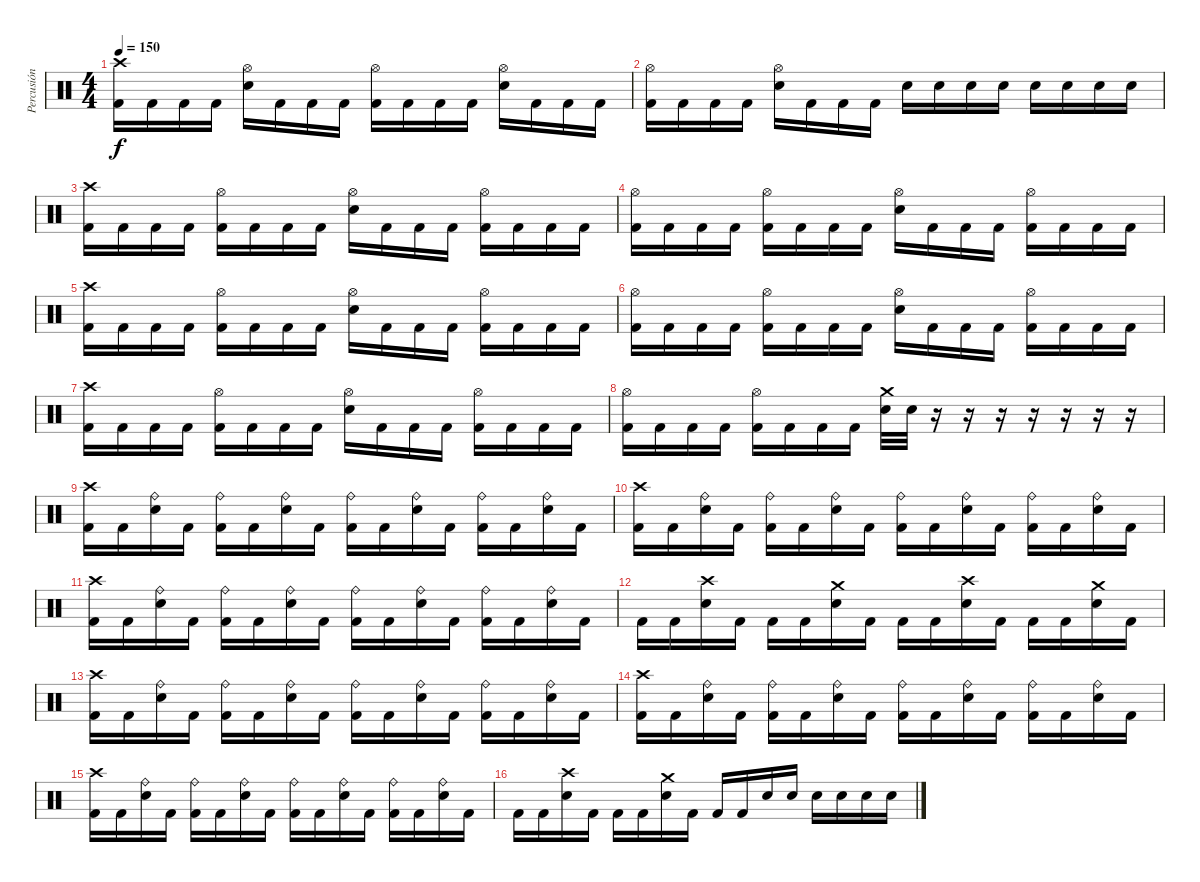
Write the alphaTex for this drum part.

\track ("Percusión" "Percusión") {instrument percussion}
\staff {score}
\articulation defaults
\ts (4 4)
\tempo 150
\clef neutral
\ks c
("Crash high (hit)" "Kick (hit) 2").16{dy f} "Kick (hit) 2".16 "Kick (hit) 2".16 "Kick (hit) 2".16 ("Hi-Hat (open)" "Electric Snare (hit)").16 "Kick (hit) 2".16 "Kick (hit) 2".16 "Kick (hit) 2".16 ("Hi-Hat (open)" "Kick (hit) 2").16 "Kick (hit) 2".16 "Kick (hit) 2".16 "Kick (hit) 2".16 ("Hi-Hat (open)" "Electric Snare (hit)").16 "Kick (hit) 2".16 "Kick (hit) 2".16 "Kick (hit) 2".16 |
("Hi-Hat (open)" "Kick (hit) 2").16 "Kick (hit) 2".16 "Kick (hit) 2".16 "Kick (hit) 2".16 ("Hi-Hat (open)" "Electric Snare (hit)").16 "Kick (hit) 2".16 "Kick (hit) 2".16 "Kick (hit) 2".16 "Electric Snare (hit)".16 "Electric Snare (hit)".16 "Electric Snare (hit)".16 "Electric Snare (hit)".16 "Electric Snare (hit)".16 "Electric Snare (hit)".16 "Electric Snare (hit)".16 "Electric Snare (hit)".16 |
("Crash high (hit)" "Kick (hit) 2").16 "Kick (hit) 2".16 "Kick (hit) 2".16 "Kick (hit) 2".16 ("Hi-Hat (open)" "Kick (hit) 2").16 "Kick (hit) 2".16 "Kick (hit) 2".16 "Kick (hit) 2".16 ("Hi-Hat (open)" "Electric Snare (hit)").16 "Kick (hit) 2".16 "Kick (hit) 2".16 "Kick (hit) 2".16 ("Hi-Hat (open)" "Kick (hit) 2").16 "Kick (hit) 2".16 "Kick (hit) 2".16 "Kick (hit) 2".16 |
("Hi-Hat (open)" "Kick (hit) 2").16 "Kick (hit) 2".16 "Kick (hit) 2".16 "Kick (hit) 2".16 ("Hi-Hat (open)" "Kick (hit) 2").16 "Kick (hit) 2".16 "Kick (hit) 2".16 "Kick (hit) 2".16 ("Hi-Hat (open)" "Electric Snare (hit)").16 "Kick (hit) 2".16 "Kick (hit) 2".16 "Kick (hit) 2".16 ("Hi-Hat (open)" "Kick (hit) 2").16 "Kick (hit) 2".16 "Kick (hit) 2".16 "Kick (hit) 2".16 |
("Crash high (hit)" "Kick (hit) 2").16 "Kick (hit) 2".16 "Kick (hit) 2".16 "Kick (hit) 2".16 ("Hi-Hat (open)" "Kick (hit) 2").16 "Kick (hit) 2".16 "Kick (hit) 2".16 "Kick (hit) 2".16 ("Hi-Hat (open)" "Electric Snare (hit)").16 "Kick (hit) 2".16 "Kick (hit) 2".16 "Kick (hit) 2".16 ("Hi-Hat (open)" "Kick (hit) 2").16 "Kick (hit) 2".16 "Kick (hit) 2".16 "Kick (hit) 2".16 |
("Hi-Hat (open)" "Kick (hit) 2").16 "Kick (hit) 2".16 "Kick (hit) 2".16 "Kick (hit) 2".16 ("Hi-Hat (open)" "Kick (hit) 2").16 "Kick (hit) 2".16 "Kick (hit) 2".16 "Kick (hit) 2".16 ("Hi-Hat (open)" "Electric Snare (hit)").16 "Kick (hit) 2".16 "Kick (hit) 2".16 "Kick (hit) 2".16 ("Hi-Hat (open)" "Kick (hit) 2").16 "Kick (hit) 2".16 "Kick (hit) 2".16 "Kick (hit) 2".16 |
("Crash high (hit)" "Kick (hit) 2").16 "Kick (hit) 2".16 "Kick (hit) 2".16 "Kick (hit) 2".16 ("Hi-Hat (open)" "Kick (hit) 2").16 "Kick (hit) 2".16 "Kick (hit) 2".16 "Kick (hit) 2".16 ("Hi-Hat (open)" "Electric Snare (hit)").16 "Kick (hit) 2".16 "Kick (hit) 2".16 "Kick (hit) 2".16 ("Hi-Hat (open)" "Kick (hit) 2").16 "Kick (hit) 2".16 "Kick (hit) 2".16 "Kick (hit) 2".16 |
("Hi-Hat (open)" "Kick (hit) 2").16 "Kick (hit) 2".16 "Kick (hit) 2".16 "Kick (hit) 2".16 ("Hi-Hat (open)" "Kick (hit) 2").16 "Kick (hit) 2".16 "Kick (hit) 2".16 "Kick (hit) 2".16 ("Crash medium (hit)" "Electric Snare (hit)").32 "Electric Snare (hit)".32 r.16 r.16 r.16 r.16 r.16 r.16 r.16 |
("Crash high (hit)" "Kick (hit) 2").16 "Kick (hit) 2".16 ("Ride (bell)" "Electric Snare (hit)").16 "Kick (hit) 2".16 ("Ride (bell)" "Kick (hit) 2").16 "Kick (hit) 2".16 ("Ride (bell)" "Electric Snare (hit)").16 "Kick (hit) 2".16 ("Ride (bell)" "Kick (hit) 2").16 "Kick (hit) 2".16 ("Ride (bell)" "Electric Snare (hit)").16 "Kick (hit) 2".16 ("Ride (bell)" "Kick (hit) 2").16 "Kick (hit) 2".16 ("Ride (bell)" "Electric Snare (hit)").16 "Kick (hit) 2".16 |
("Crash high (hit)" "Kick (hit) 2").16 "Kick (hit) 2".16 ("Ride (bell)" "Electric Snare (hit)").16 "Kick (hit) 2".16 ("Ride (bell)" "Kick (hit) 2").16 "Kick (hit) 2".16 ("Ride (bell)" "Electric Snare (hit)").16 "Kick (hit) 2".16 ("Ride (bell)" "Kick (hit) 2").16 "Kick (hit) 2".16 ("Ride (bell)" "Electric Snare (hit)").16 "Kick (hit) 2".16 ("Ride (bell)" "Kick (hit) 2").16 "Kick (hit) 2".16 ("Ride (bell)" "Electric Snare (hit)").16 "Kick (hit) 2".16 |
("Crash high (hit)" "Kick (hit) 2").16 "Kick (hit) 2".16 ("Ride (bell)" "Electric Snare (hit)").16 "Kick (hit) 2".16 ("Ride (bell)" "Kick (hit) 2").16 "Kick (hit) 2".16 ("Ride (bell)" "Electric Snare (hit)").16 "Kick (hit) 2".16 ("Ride (bell)" "Kick (hit) 2").16 "Kick (hit) 2".16 ("Ride (bell)" "Electric Snare (hit)").16 "Kick (hit) 2".16 ("Ride (bell)" "Kick (hit) 2").16 "Kick (hit) 2".16 ("Ride (bell)" "Electric Snare (hit)").16 "Kick (hit) 2".16 |
"Kick (hit) 2".16 "Kick (hit) 2".16 ("Crash high (hit)" "Electric Snare (hit)").16 "Kick (hit) 2".16 "Kick (hit) 2".16 "Kick (hit) 2".16 ("Crash medium (hit)" "Electric Snare (hit)").16 "Kick (hit) 2".16 "Kick (hit) 2".16 "Kick (hit) 2".16 ("Crash high (hit)" "Electric Snare (hit)").16 "Kick (hit) 2".16 "Kick (hit) 2".16 "Kick (hit) 2".16 ("Crash medium (hit)" "Electric Snare (hit)").16 "Kick (hit) 2".16 |
("Crash high (hit)" "Kick (hit) 2").16 "Kick (hit) 2".16 ("Ride (bell)" "Electric Snare (hit)").16 "Kick (hit) 2".16 ("Ride (bell)" "Kick (hit) 2").16 "Kick (hit) 2".16 ("Ride (bell)" "Electric Snare (hit)").16 "Kick (hit) 2".16 ("Ride (bell)" "Kick (hit) 2").16 "Kick (hit) 2".16 ("Ride (bell)" "Electric Snare (hit)").16 "Kick (hit) 2".16 ("Ride (bell)" "Kick (hit) 2").16 "Kick (hit) 2".16 ("Ride (bell)" "Electric Snare (hit)").16 "Kick (hit) 2".16 |
("Crash high (hit)" "Kick (hit) 2").16 "Kick (hit) 2".16 ("Ride (bell)" "Electric Snare (hit)").16 "Kick (hit) 2".16 ("Ride (bell)" "Kick (hit) 2").16 "Kick (hit) 2".16 ("Ride (bell)" "Electric Snare (hit)").16 "Kick (hit) 2".16 ("Ride (bell)" "Kick (hit) 2").16 "Kick (hit) 2".16 ("Ride (bell)" "Electric Snare (hit)").16 "Kick (hit) 2".16 ("Ride (bell)" "Kick (hit) 2").16 "Kick (hit) 2".16 ("Ride (bell)" "Electric Snare (hit)").16 "Kick (hit) 2".16 |
("Crash high (hit)" "Kick (hit) 2").16 "Kick (hit) 2".16 ("Ride (bell)" "Electric Snare (hit)").16 "Kick (hit) 2".16 ("Ride (bell)" "Kick (hit) 2").16 "Kick (hit) 2".16 ("Ride (bell)" "Electric Snare (hit)").16 "Kick (hit) 2".16 ("Ride (bell)" "Kick (hit) 2").16 "Kick (hit) 2".16 ("Ride (bell)" "Electric Snare (hit)").16 "Kick (hit) 2".16 ("Ride (bell)" "Kick (hit) 2").16 "Kick (hit) 2".16 ("Ride (bell)" "Electric Snare (hit)").16 "Kick (hit) 2".16 |
"Kick (hit) 2".16 "Kick (hit) 2".16 ("Crash high (hit)" "Electric Snare (hit)").16 "Kick (hit) 2".16 "Kick (hit) 2".16 "Kick (hit) 2".16 ("Crash medium (hit)" "Electric Snare (hit)").16 "Kick (hit) 2".16 "Kick (hit) 2".16 "Kick (hit) 2".16 "Electric Snare (hit)".16 "Electric Snare (hit)".16 "Electric Snare (hit)".16 "Electric Snare (hit)".16 "Electric Snare (hit)".16 "Electric Snare (hit)".16
